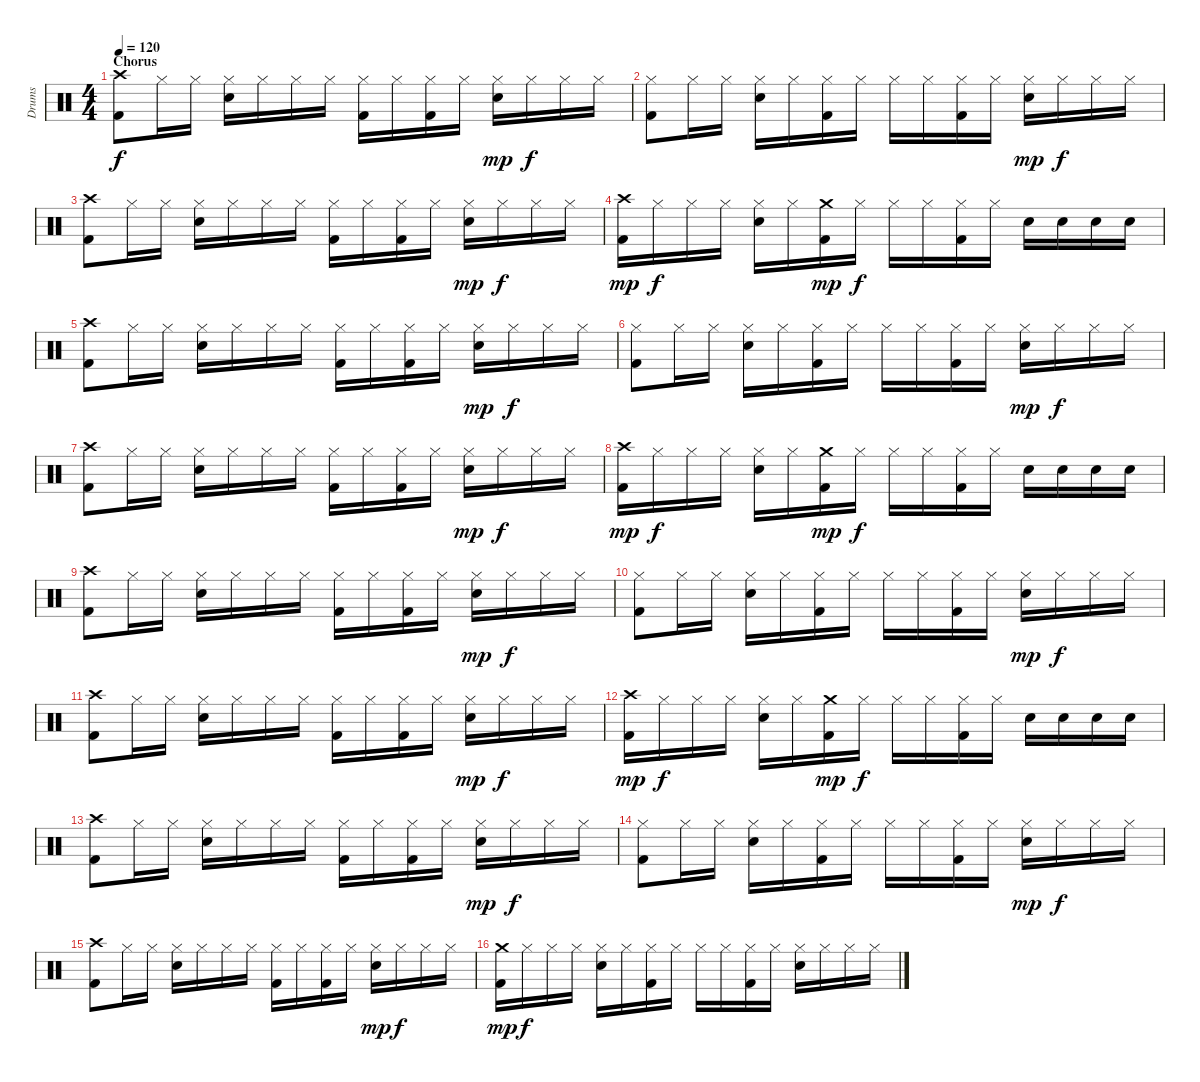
\track ("Drums" "Drums") {instrument percussion}
\staff {score}
\articulation defaults
\ts (4 4)
\section ("" "Chorus")
\tempo 120
\clef neutral
\ks c
("Crash high (hit)" "Kick (hit) 2").8{dy f} "Hi-Hat (closed)".16 "Hi-Hat (closed)".16 ("Hi-Hat (closed)" "Electric Snare (hit)").16 "Hi-Hat (closed)".16 "Hi-Hat (closed)".16 "Hi-Hat (closed)".16 ("Hi-Hat (closed)" "Kick (hit) 2").16 "Hi-Hat (closed)".16 ("Hi-Hat (closed)" "Kick (hit) 2").16 "Hi-Hat (closed)".16 ("Hi-Hat (closed)" "Electric Snare (hit)").16{dy mp} "Hi-Hat (closed)".16{dy f} "Hi-Hat (closed)".16 "Hi-Hat (closed)".16 |
("Hi-Hat (closed)" "Kick (hit) 2").8 "Hi-Hat (closed)".16 "Hi-Hat (closed)".16 ("Hi-Hat (closed)" "Electric Snare (hit)").16 "Hi-Hat (closed)".16 ("Hi-Hat (closed)" "Kick (hit) 2").16 "Hi-Hat (closed)".16 "Hi-Hat (closed)".16 "Hi-Hat (closed)".16 ("Hi-Hat (closed)" "Kick (hit) 2").16 "Hi-Hat (closed)".16 ("Hi-Hat (closed)" "Electric Snare (hit)").16{dy mp} "Hi-Hat (closed)".16{dy f} "Hi-Hat (closed)".16 "Hi-Hat (closed)".16 |
("Crash high (hit)" "Kick (hit) 2").8 "Hi-Hat (closed)".16 "Hi-Hat (closed)".16 ("Hi-Hat (closed)" "Electric Snare (hit)").16 "Hi-Hat (closed)".16 "Hi-Hat (closed)".16 "Hi-Hat (closed)".16 ("Hi-Hat (closed)" "Kick (hit) 2").16 "Hi-Hat (closed)".16 ("Hi-Hat (closed)" "Kick (hit) 2").16 "Hi-Hat (closed)".16 ("Hi-Hat (closed)" "Electric Snare (hit)").16{dy mp} "Hi-Hat (closed)".16{dy f} "Hi-Hat (closed)".16 "Hi-Hat (closed)".16 |
("Crash high (hit)" "Kick (hit) 2").16{dy mp} "Hi-Hat (closed)".16{dy f} "Hi-Hat (closed)".16 "Hi-Hat (closed)".16 ("Hi-Hat (closed)" "Electric Snare (hit)").16 "Hi-Hat (closed)".16 ("Crash medium (hit)" "Kick (hit) 2").16{dy mp} "Hi-Hat (closed)".16{dy f} "Hi-Hat (closed)".16 "Hi-Hat (closed)".16 ("Hi-Hat (closed)" "Kick (hit) 2").16 "Hi-Hat (closed)".16 "Electric Snare (hit)".16 "Electric Snare (hit)".16 "Electric Snare (hit)".16 "Electric Snare (hit)".16 |
("Crash high (hit)" "Kick (hit) 2").8 "Hi-Hat (closed)".16 "Hi-Hat (closed)".16 ("Hi-Hat (closed)" "Electric Snare (hit)").16 "Hi-Hat (closed)".16 "Hi-Hat (closed)".16 "Hi-Hat (closed)".16 ("Hi-Hat (closed)" "Kick (hit) 2").16 "Hi-Hat (closed)".16 ("Hi-Hat (closed)" "Kick (hit) 2").16 "Hi-Hat (closed)".16 ("Hi-Hat (closed)" "Electric Snare (hit)").16{dy mp} "Hi-Hat (closed)".16{dy f} "Hi-Hat (closed)".16 "Hi-Hat (closed)".16 |
("Hi-Hat (closed)" "Kick (hit) 2").8 "Hi-Hat (closed)".16 "Hi-Hat (closed)".16 ("Hi-Hat (closed)" "Electric Snare (hit)").16 "Hi-Hat (closed)".16 ("Hi-Hat (closed)" "Kick (hit) 2").16 "Hi-Hat (closed)".16 "Hi-Hat (closed)".16 "Hi-Hat (closed)".16 ("Hi-Hat (closed)" "Kick (hit) 2").16 "Hi-Hat (closed)".16 ("Hi-Hat (closed)" "Electric Snare (hit)").16{dy mp} "Hi-Hat (closed)".16{dy f} "Hi-Hat (closed)".16 "Hi-Hat (closed)".16 |
("Crash high (hit)" "Kick (hit) 2").8 "Hi-Hat (closed)".16 "Hi-Hat (closed)".16 ("Hi-Hat (closed)" "Electric Snare (hit)").16 "Hi-Hat (closed)".16 "Hi-Hat (closed)".16 "Hi-Hat (closed)".16 ("Hi-Hat (closed)" "Kick (hit) 2").16 "Hi-Hat (closed)".16 ("Hi-Hat (closed)" "Kick (hit) 2").16 "Hi-Hat (closed)".16 ("Hi-Hat (closed)" "Electric Snare (hit)").16{dy mp} "Hi-Hat (closed)".16{dy f} "Hi-Hat (closed)".16 "Hi-Hat (closed)".16 |
("Crash high (hit)" "Kick (hit) 2").16{dy mp} "Hi-Hat (closed)".16{dy f} "Hi-Hat (closed)".16 "Hi-Hat (closed)".16 ("Hi-Hat (closed)" "Electric Snare (hit)").16 "Hi-Hat (closed)".16 ("Crash medium (hit)" "Kick (hit) 2").16{dy mp} "Hi-Hat (closed)".16{dy f} "Hi-Hat (closed)".16 "Hi-Hat (closed)".16 ("Hi-Hat (closed)" "Kick (hit) 2").16 "Hi-Hat (closed)".16 "Electric Snare (hit)".16 "Electric Snare (hit)".16 "Electric Snare (hit)".16 "Electric Snare (hit)".16 |
("Crash high (hit)" "Kick (hit) 2").8 "Hi-Hat (closed)".16 "Hi-Hat (closed)".16 ("Hi-Hat (closed)" "Electric Snare (hit)").16 "Hi-Hat (closed)".16 "Hi-Hat (closed)".16 "Hi-Hat (closed)".16 ("Hi-Hat (closed)" "Kick (hit) 2").16 "Hi-Hat (closed)".16 ("Hi-Hat (closed)" "Kick (hit) 2").16 "Hi-Hat (closed)".16 ("Hi-Hat (closed)" "Electric Snare (hit)").16{dy mp} "Hi-Hat (closed)".16{dy f} "Hi-Hat (closed)".16 "Hi-Hat (closed)".16 |
("Hi-Hat (closed)" "Kick (hit) 2").8 "Hi-Hat (closed)".16 "Hi-Hat (closed)".16 ("Hi-Hat (closed)" "Electric Snare (hit)").16 "Hi-Hat (closed)".16 ("Hi-Hat (closed)" "Kick (hit) 2").16 "Hi-Hat (closed)".16 "Hi-Hat (closed)".16 "Hi-Hat (closed)".16 ("Hi-Hat (closed)" "Kick (hit) 2").16 "Hi-Hat (closed)".16 ("Hi-Hat (closed)" "Electric Snare (hit)").16{dy mp} "Hi-Hat (closed)".16{dy f} "Hi-Hat (closed)".16 "Hi-Hat (closed)".16 |
("Crash high (hit)" "Kick (hit) 2").8 "Hi-Hat (closed)".16 "Hi-Hat (closed)".16 ("Hi-Hat (closed)" "Electric Snare (hit)").16 "Hi-Hat (closed)".16 "Hi-Hat (closed)".16 "Hi-Hat (closed)".16 ("Hi-Hat (closed)" "Kick (hit) 2").16 "Hi-Hat (closed)".16 ("Hi-Hat (closed)" "Kick (hit) 2").16 "Hi-Hat (closed)".16 ("Hi-Hat (closed)" "Electric Snare (hit)").16{dy mp} "Hi-Hat (closed)".16{dy f} "Hi-Hat (closed)".16 "Hi-Hat (closed)".16 |
("Crash high (hit)" "Kick (hit) 2").16{dy mp} "Hi-Hat (closed)".16{dy f} "Hi-Hat (closed)".16 "Hi-Hat (closed)".16 ("Hi-Hat (closed)" "Electric Snare (hit)").16 "Hi-Hat (closed)".16 ("Crash medium (hit)" "Kick (hit) 2").16{dy mp} "Hi-Hat (closed)".16{dy f} "Hi-Hat (closed)".16 "Hi-Hat (closed)".16 ("Hi-Hat (closed)" "Kick (hit) 2").16 "Hi-Hat (closed)".16 "Electric Snare (hit)".16 "Electric Snare (hit)".16 "Electric Snare (hit)".16 "Electric Snare (hit)".16 |
("Crash high (hit)" "Kick (hit) 2").8 "Hi-Hat (closed)".16 "Hi-Hat (closed)".16 ("Hi-Hat (closed)" "Electric Snare (hit)").16 "Hi-Hat (closed)".16 "Hi-Hat (closed)".16 "Hi-Hat (closed)".16 ("Hi-Hat (closed)" "Kick (hit) 2").16 "Hi-Hat (closed)".16 ("Hi-Hat (closed)" "Kick (hit) 2").16 "Hi-Hat (closed)".16 ("Hi-Hat (closed)" "Electric Snare (hit)").16{dy mp} "Hi-Hat (closed)".16{dy f} "Hi-Hat (closed)".16 "Hi-Hat (closed)".16 |
("Hi-Hat (closed)" "Kick (hit) 2").8 "Hi-Hat (closed)".16 "Hi-Hat (closed)".16 ("Hi-Hat (closed)" "Electric Snare (hit)").16 "Hi-Hat (closed)".16 ("Hi-Hat (closed)" "Kick (hit) 2").16 "Hi-Hat (closed)".16 "Hi-Hat (closed)".16 "Hi-Hat (closed)".16 ("Hi-Hat (closed)" "Kick (hit) 2").16 "Hi-Hat (closed)".16 ("Hi-Hat (closed)" "Electric Snare (hit)").16{dy mp} "Hi-Hat (closed)".16{dy f} "Hi-Hat (closed)".16 "Hi-Hat (closed)".16 |
("Crash high (hit)" "Kick (hit) 2").8 "Hi-Hat (closed)".16 "Hi-Hat (closed)".16 ("Hi-Hat (closed)" "Electric Snare (hit)").16 "Hi-Hat (closed)".16 "Hi-Hat (closed)".16 "Hi-Hat (closed)".16 ("Hi-Hat (closed)" "Kick (hit) 2").16 "Hi-Hat (closed)".16 ("Hi-Hat (closed)" "Kick (hit) 2").16 "Hi-Hat (closed)".16 ("Hi-Hat (closed)" "Electric Snare (hit)").16{dy mp} "Hi-Hat (closed)".16{dy f} "Hi-Hat (closed)".16 "Hi-Hat (closed)".16 |
("Crash medium (hit)" "Kick (hit) 2").16{dy mp} "Hi-Hat (closed)".16{dy f} "Hi-Hat (closed)".16 "Hi-Hat (closed)".16 ("Hi-Hat (closed)" "Electric Snare (hit)").16 "Hi-Hat (closed)".16 ("Hi-Hat (closed)" "Kick (hit) 2").16 "Hi-Hat (closed)".16 "Hi-Hat (closed)".16 "Hi-Hat (closed)".16 ("Hi-Hat (closed)" "Kick (hit) 2").16 "Hi-Hat (closed)".16 ("Hi-Hat (closed)" "Electric Snare (hit)").16 "Hi-Hat (closed)".16 "Hi-Hat (closed)".16 "Hi-Hat (closed)".16
